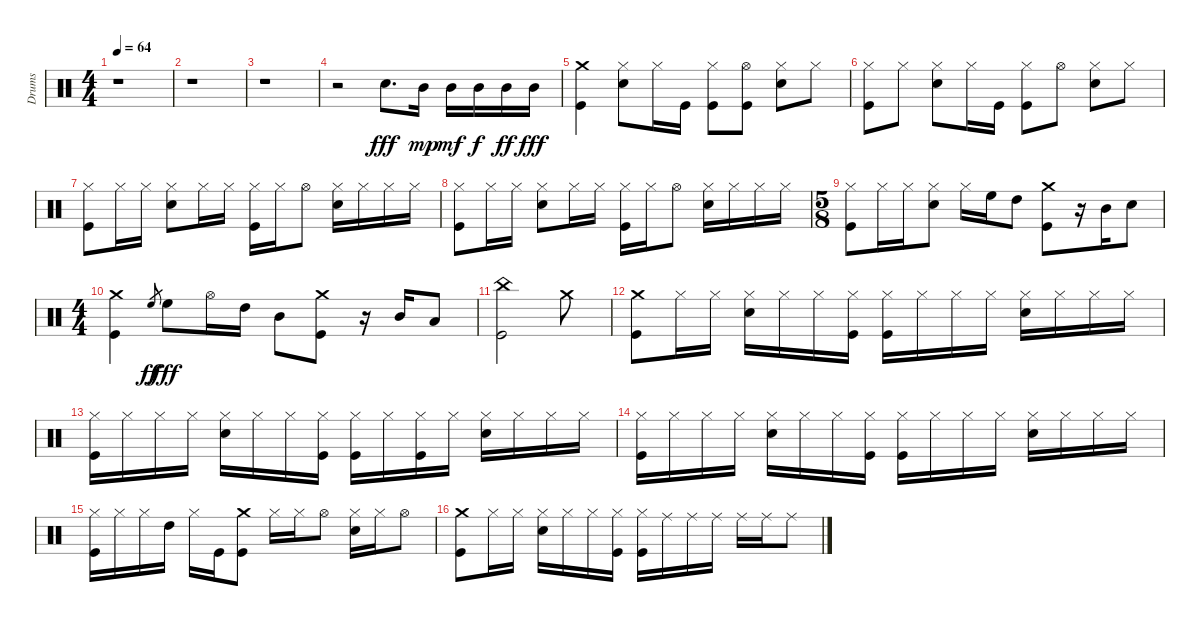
\track ("Drums" "Drums") {instrument percussion}
\staff {score}
\articulation defaults
\ts (4 4)
\tempo 64
\clef neutral
\scale
0.474178
\ks c
r.1{dy fff} |
\scale
0.262911 r.1 |
\scale
0.262911 r.1 |
\scale
0.333333 r.2 "Snare (hit) 2".8{d} "Mid Tom (hit)".16{dy mp} "Mid Tom (hit)".16{dy mf} "Mid Tom (hit)".16{dy f} "Mid Tom (hit)".16{dy ff} "Mid Tom (hit)".16{dy fff} |
\scale
0.333333 ("Crash medium (hit)" "Kick (hit)").4 ("Hi-Hat (closed)" "Snare (hit) 2").8 "Hi-Hat (closed)".16 "Kick (hit)".16 ("Hi-Hat (closed)" "Kick (hit)").8 ("Hi-Hat (open)" "Kick (hit)").8 ("Hi-Hat (closed)" "Snare (hit) 2").8 "Hi-Hat (closed)".8 |
\scale
0.333333 ("Hi-Hat (closed)" "Kick (hit)").8 "Hi-Hat (closed)".8 ("Hi-Hat (closed)" "Snare (hit) 2").8 "Hi-Hat (closed)".16 "Kick (hit)".16 ("Hi-Hat (closed)" "Kick (hit)").8 "Hi-Hat (open)".8 ("Hi-Hat (closed)" "Snare (hit) 2").8 "Hi-Hat (closed)".8 |
\scale
0.262911 ("Hi-Hat (closed)" "Kick (hit)").8 "Hi-Hat (closed)".16 "Hi-Hat (closed)".16 ("Hi-Hat (closed)" "Snare (hit) 2").8 "Hi-Hat (closed)".16 "Hi-Hat (closed)".16 ("Hi-Hat (closed)" "Kick (hit)").16 "Hi-Hat (closed)".16 "Hi-Hat (open)".8 ("Hi-Hat (closed)" "Snare (hit) 2").16 "Hi-Hat (closed)".16 "Hi-Hat (closed)".16 "Hi-Hat (closed)".16 |
\scale
0.262911 ("Hi-Hat (closed)" "Kick (hit)").8 "Hi-Hat (closed)".16 "Hi-Hat (closed)".16 ("Hi-Hat (closed)" "Snare (hit) 2").8 "Hi-Hat (closed)".16 "Hi-Hat (closed)".16 ("Hi-Hat (closed)" "Kick (hit)").16 "Hi-Hat (closed)".16 "Hi-Hat (open)".8 ("Hi-Hat (closed)" "Snare (hit) 2").16 "Hi-Hat (closed)".16 "Hi-Hat (closed)".16 "Hi-Hat (closed)".16 |
\ts (5 8)
\scale
0.474178 ("Hi-Hat (closed)" "Kick (hit)").8 "Hi-Hat (closed)".16 "Hi-Hat (closed)".16 ("Hi-Hat (closed)" "Snare (hit) 2").8 "Hi-Hat (closed)".16 "High Floor Tom (hit)".16 "High Tom (hit)".8 ("Crash medium (hit)" "Kick (hit)").8 r.16 "Mid Tom (hit)".16 "Snare (hit) 2".8 |
\ts (4 4)
\scale
0.474178 ("Crash medium (hit)" "Kick (hit)").4 "High Floor Tom (hit)".8{gr dy ff} "High Floor Tom (hit)".8{dy fff} "Hi-Hat (open)".16 "High Tom (hit)".16 "Mid Tom (hit)".8 ("Crash medium (hit)" "Kick (hit)").8 r.16 "Mid Tom (hit)".16 "Low Tom (hit)".8 |
\scale
0.262911 ("China (hit)" "Kick (hit)").2 "Crash medium (hit)".8 |
\scale
0.262911 ("Crash medium (hit)" "Kick (hit)").8 "Hi-Hat (closed)".16 "Hi-Hat (closed)".16 ("Hi-Hat (closed)" "Snare (hit) 2").16 "Hi-Hat (closed)".16 "Hi-Hat (closed)".16 ("Hi-Hat (closed)" "Kick (hit)").16 ("Hi-Hat (closed)" "Kick (hit)").16 "Hi-Hat (closed)".16 "Hi-Hat (closed)".16 "Hi-Hat (closed)".16 ("Hi-Hat (closed)" "Snare (hit) 2").16 "Hi-Hat (closed)".16 "Hi-Hat (closed)".16 "Hi-Hat (closed)".16 |
\scale
0.333333 ("Hi-Hat (closed)" "Kick (hit)").16 "Hi-Hat (closed)".16 "Hi-Hat (closed)".16 "Hi-Hat (closed)".16 ("Hi-Hat (closed)" "Snare (hit) 2").16 "Hi-Hat (closed)".16 "Hi-Hat (closed)".16 ("Hi-Hat (closed)" "Kick (hit)").16 ("Hi-Hat (closed)" "Kick (hit)").16 "Hi-Hat (closed)".16 ("Hi-Hat (closed)" "Kick (hit)").16 "Hi-Hat (closed)".16 ("Hi-Hat (closed)" "Snare (hit) 2").16 "Hi-Hat (closed)".16 "Hi-Hat (closed)".16 "Hi-Hat (closed)".16 |
\scale
0.333333 ("Hi-Hat (closed)" "Kick (hit)").16 "Hi-Hat (closed)".16 "Hi-Hat (closed)".16 "Hi-Hat (closed)".16 ("Hi-Hat (closed)" "Snare (hit) 2").16 "Hi-Hat (closed)".16 "Hi-Hat (closed)".16 ("Hi-Hat (closed)" "Kick (hit)").16 ("Hi-Hat (closed)" "Kick (hit)").16 "Hi-Hat (closed)".16 "Hi-Hat (closed)".16 "Hi-Hat (closed)".16 ("Hi-Hat (closed)" "Snare (hit) 2").16 "Hi-Hat (closed)".16 "Hi-Hat (closed)".16 "Hi-Hat (closed)".16 |
\scale
0.333333 ("Hi-Hat (closed)" "Kick (hit)").16 "Hi-Hat (closed)".16 "Hi-Hat (closed)".16 "High Tom (hit)".16 "Hi-Hat (closed)".16 "Kick (hit)".16 ("Crash medium (hit)" "Kick (hit)").8 "Hi-Hat (closed)".16 "Hi-Hat (closed)".16 "Hi-Hat (open)".8 ("Hi-Hat (closed)" "Snare (hit) 2").16 "Hi-Hat (closed)".16 "Hi-Hat (open)".8 |
\scale
0.333333 ("Crash medium (hit)" "Kick (hit)").8 "Hi-Hat (closed)".16 "Hi-Hat (closed)".16 ("Hi-Hat (closed)" "Snare (hit) 2").16 "Hi-Hat (closed)".16 "Hi-Hat (closed)".16 ("Hi-Hat (closed)" "Kick (hit)").16 ("Hi-Hat (closed)" "Kick (hit)").16 "Ride (middle)".16 "Ride (middle)".16 "Ride (middle)".16 "Ride (middle)".16 "Ride (middle)".16 "Ride (middle)".8
